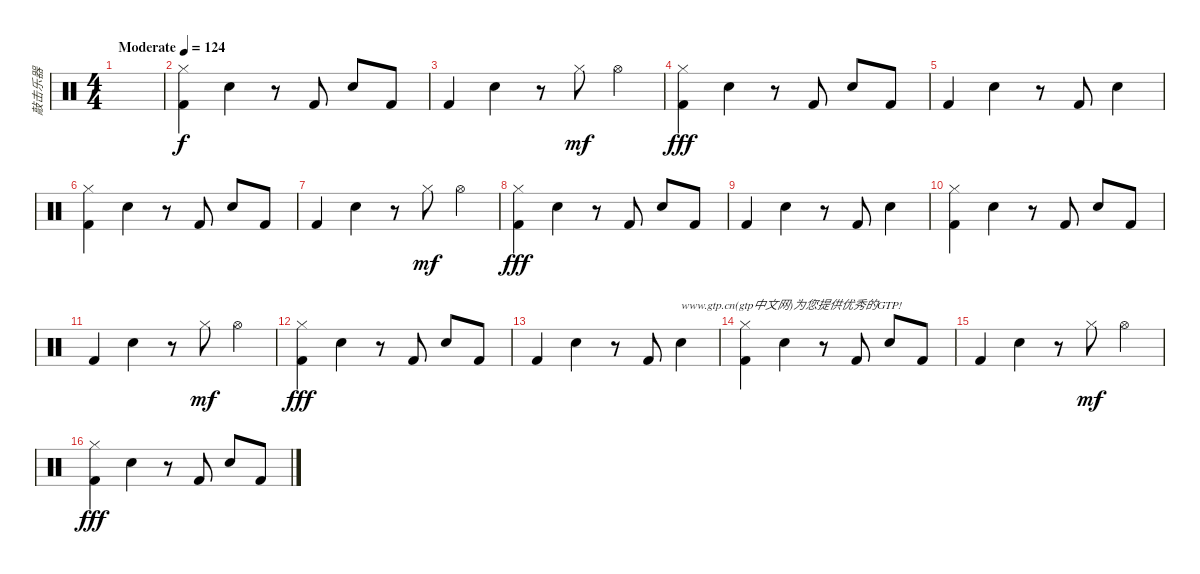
\track ("敲击乐器" "敲击乐器") {instrument percussion}
\staff {score}
\articulation defaults
\ts (4 4)
\tempo (124 "Moderate")
\clef neutral
\ks c
|
("Hi-Hat (closed)" "Kick (hit) 2").4 "Snare (hit) 2".4 r.8 "Kick (hit) 2".8 "Snare (hit) 2".8 "Kick (hit) 2".8 |
"Kick (hit) 2".4 "Snare (hit) 2".4 r.8 "Hi-Hat (closed)".8{dy mf} "Hi-Hat (open)".4 |
("Hi-Hat (closed)" "Kick (hit) 2").4{dy fff} "Snare (hit) 2".4 r.8 "Kick (hit) 2".8 "Snare (hit) 2".8 "Kick (hit) 2".8 |
"Kick (hit) 2".4 "Snare (hit) 2".4 r.8 "Kick (hit) 2".8 "Snare (hit) 2".4 |
("Hi-Hat (closed)" "Kick (hit) 2").4 "Snare (hit) 2".4 r.8 "Kick (hit) 2".8 "Snare (hit) 2".8 "Kick (hit) 2".8 |
"Kick (hit) 2".4 "Snare (hit) 2".4 r.8 "Hi-Hat (closed)".8{dy mf} "Hi-Hat (open)".4 |
("Hi-Hat (closed)" "Kick (hit) 2").4{dy fff} "Snare (hit) 2".4 r.8 "Kick (hit) 2".8 "Snare (hit) 2".8 "Kick (hit) 2".8 |
"Kick (hit) 2".4 "Snare (hit) 2".4 r.8 "Kick (hit) 2".8 "Snare (hit) 2".4 |
("Hi-Hat (closed)" "Kick (hit) 2").4 "Snare (hit) 2".4 r.8 "Kick (hit) 2".8 "Snare (hit) 2".8 "Kick (hit) 2".8 |
"Kick (hit) 2".4 "Snare (hit) 2".4 r.8 "Hi-Hat (closed)".8{dy mf} "Hi-Hat (open)".4 |
("Hi-Hat (closed)" "Kick (hit) 2").4{dy fff} "Snare (hit) 2".4 r.8 "Kick (hit) 2".8 "Snare (hit) 2".8 "Kick (hit) 2".8 |
"Kick (hit) 2".4 "Snare (hit) 2".4 r.8 "Kick (hit) 2".8 "Snare (hit) 2".4{txt "www.gtp.cn(gtp中文网)为您提供优秀的GTP!"} |
("Hi-Hat (closed)" "Kick (hit) 2").4 "Snare (hit) 2".4 r.8 "Kick (hit) 2".8 "Snare (hit) 2".8 "Kick (hit) 2".8 |
"Kick (hit) 2".4 "Snare (hit) 2".4 r.8 "Hi-Hat (closed)".8{dy mf} "Hi-Hat (open)".4 |
("Hi-Hat (closed)" "Kick (hit) 2").4{dy fff} "Snare (hit) 2".4 r.8 "Kick (hit) 2".8 "Snare (hit) 2".8 "Kick (hit) 2".8
